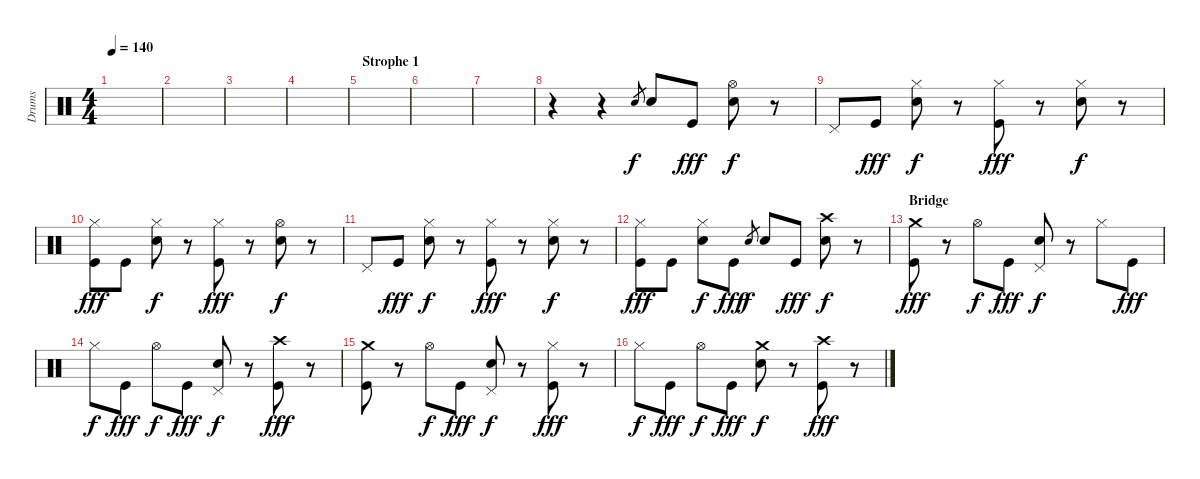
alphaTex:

\track ("Drums" "Drums") {instrument percussion}
\staff {score}
\articulation defaults
\ts (4 4)
\tempo 140
\clef neutral
\ks c
|
|
|
|
\section ("" "Strophe 1")
|
|
|
r.4 r.4 "Electric Snare (hit)".8{gr} "Electric Snare (hit)".8 "Kick (hit)".8{dy fff} ("Hi-Hat (open)" "Electric Snare (hit)").8{dy f} r.8 |
"Pedal Hi-Hat (hit)".8 "Kick (hit)".8{dy fff} ("Hi-Hat (closed)" "Electric Snare (hit)").8{dy f} r.8 ("Hi-Hat (closed)" "Kick (hit)").8{dy fff} r.8 ("Hi-Hat (closed)" "Electric Snare (hit)").8{dy f} r.8 |
("Hi-Hat (closed)" "Kick (hit)").8{dy fff} "Kick (hit)".8 ("Hi-Hat (closed)" "Electric Snare (hit)").8{dy f} r.8 ("Hi-Hat (closed)" "Kick (hit)").8{dy fff} r.8 ("Hi-Hat (open)" "Electric Snare (hit)").8{dy f} r.8 |
"Pedal Hi-Hat (hit)".8 "Kick (hit)".8{dy fff} ("Hi-Hat (closed)" "Electric Snare (hit)").8{dy f} r.8 ("Hi-Hat (closed)" "Kick (hit)").8{dy fff} r.8 ("Hi-Hat (closed)" "Electric Snare (hit)").8{dy f} r.8 |
("Hi-Hat (closed)" "Kick (hit)").8{dy fff} "Kick (hit)".8 ("Hi-Hat (closed)" "Electric Snare (hit)").8{dy f} "Kick (hit)".8{dy fff} "Electric Snare (hit)".8{gr dy f} "Electric Snare (hit)".8 "Kick (hit)".8{dy fff} ("Crash high (hit)" "Electric Snare (hit)").8{dy f} r.8 |
\section ("" "Bridge")
("Crash medium (hit)" "Kick (hit)").8{dy fff} r.8 "Hi-Hat (open)".8{dy f} "Kick (hit)".8{dy fff} ("Pedal Hi-Hat (hit)" "Electric Snare (hit)").8{dy f} r.8 "Hi-Hat (closed)".8 "Kick (hit)".8{dy fff} |
"Hi-Hat (closed)".8{dy f} "Kick (hit)".8{dy fff} "Hi-Hat (open)".8{dy f} "Kick (hit)".8{dy fff} ("Pedal Hi-Hat (hit)" "Electric Snare (hit)").8{dy f} r.8 ("Crash high (hit)" "Kick (hit)").8{dy fff} r.8 |
("Crash medium (hit)" "Kick (hit)").8 r.8 "Hi-Hat (open)".8{dy f} "Kick (hit)".8{dy fff} ("Pedal Hi-Hat (hit)" "Electric Snare (hit)").8{dy f} r.8 ("Hi-Hat (closed)" "Kick (hit)").8{dy fff} r.8 |
"Hi-Hat (closed)".8{dy f} "Kick (hit)".8{dy fff} "Hi-Hat (open)".8{dy f} "Kick (hit)".8{dy fff} ("Crash medium (hit)" "Electric Snare (hit)").8{dy f} r.8 ("Crash high (hit)" "Kick (hit)").8{dy fff} r.8
